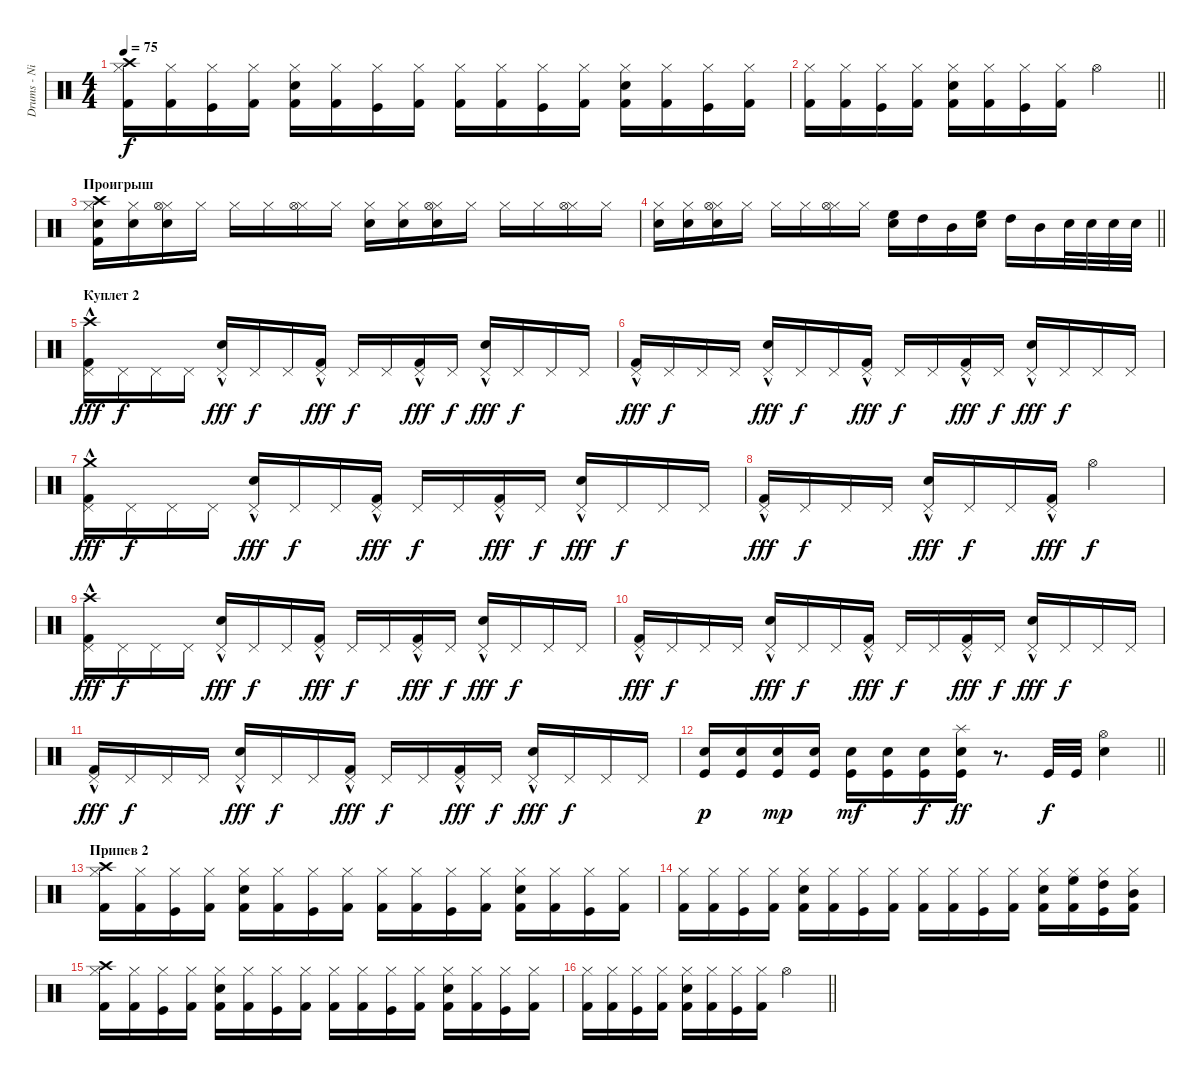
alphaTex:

\track ("Drums - NikiTon" "Drums - Ni") {instrument percussion}
\staff {score}
\articulation defaults
\ts (4 4)
\tempo 75
\clef neutral
\ks c
("Hi-Hat (closed)" "Crash high (hit)" "Kick (hit) 2").16{dy f} ("Hi-Hat (closed)" "Kick (hit) 2").16 ("Hi-Hat (closed)" "Kick (hit)").16 ("Hi-Hat (closed)" "Kick (hit) 2").16 ("Snare (hit) 2" "Hi-Hat (closed)" "Kick (hit) 2").16 ("Hi-Hat (closed)" "Kick (hit) 2").16 ("Hi-Hat (closed)" "Kick (hit)").16 ("Hi-Hat (closed)" "Kick (hit) 2").16 ("Hi-Hat (closed)" "Kick (hit) 2").16 ("Hi-Hat (closed)" "Kick (hit) 2").16 ("Hi-Hat (closed)" "Kick (hit)").16 ("Hi-Hat (closed)" "Kick (hit) 2").16 ("Snare (hit) 2" "Hi-Hat (closed)" "Kick (hit) 2").16 ("Hi-Hat (closed)" "Kick (hit) 2").16 ("Hi-Hat (closed)" "Kick (hit)").16 ("Hi-Hat (closed)" "Kick (hit) 2").16 |
\barLineRight lightlight
("Hi-Hat (closed)" "Kick (hit) 2").16 ("Hi-Hat (closed)" "Kick (hit) 2").16 ("Hi-Hat (closed)" "Kick (hit)").16 ("Hi-Hat (closed)" "Kick (hit) 2").16 ("Snare (hit) 2" "Hi-Hat (closed)" "Kick (hit) 2").16 ("Hi-Hat (closed)" "Kick (hit) 2").16 ("Hi-Hat (closed)" "Kick (hit)").16 ("Hi-Hat (closed)" "Kick (hit) 2").16 "Hi-Hat (open)".2 |
\section ("" "Проигрыш")
("Electric Snare (hit)" "Hi-Hat (closed)" "Crash high (hit)" "Kick (hit) 2").16 ("Electric Snare (hit)" "Hi-Hat (closed)").16 ("Electric Snare (hit)" "Hi-Hat (closed)" "Hi-Hat (open)").16 "Hi-Hat (closed)".16 "Hi-Hat (closed)".16 "Hi-Hat (closed)".16 ("Hi-Hat (closed)" "Hi-Hat (open)").16 "Hi-Hat (closed)".16 ("Hi-Hat (closed)" "Electric Snare (hit)").16 ("Hi-Hat (closed)" "Electric Snare (hit)").16 ("Hi-Hat (closed)" "Electric Snare (hit)" "Hi-Hat (open)").16 "Hi-Hat (closed)".16 "Hi-Hat (closed)".16 "Hi-Hat (closed)".16 ("Hi-Hat (closed)" "Hi-Hat (open)").16 "Hi-Hat (closed)".16 |
\barLineRight lightlight
("Hi-Hat (closed)" "Electric Snare (hit)").16 ("Hi-Hat (closed)" "Electric Snare (hit)").16 ("Hi-Hat (closed)" "Electric Snare (hit)" "Hi-Hat (open)").16 "Hi-Hat (closed)".16 "Hi-Hat (closed)".16 "Hi-Hat (closed)".16 ("Hi-Hat (closed)" "Hi-Hat (open)").16 "Hi-Hat (closed)".16 ("Electric Snare (hit)" "High Floor Tom (hit)").16 "High Tom (hit)".16 "Mid Tom (hit)".16 ("Electric Snare (hit)" "High Floor Tom (hit)").16 "High Tom (hit)".16 "Mid Tom (hit)".16 "Electric Snare (hit)".32 "Electric Snare (hit)".32 "Electric Snare (hit)".32 "Electric Snare (hit)".32 |
\section ("" "Куплет 2")
("Crash high (hit)" "Pedal Hi-Hat (hit)"{hac} "Kick (hit) 2").16{dy fff} "Pedal Hi-Hat (hit)".16{dy f} "Pedal Hi-Hat (hit)".16 "Pedal Hi-Hat (hit)".16 ("Pedal Hi-Hat (hit)"{hac} "Electric Snare (hit)"{hac}).16{dy fff} "Pedal Hi-Hat (hit)".16{dy f} "Pedal Hi-Hat (hit)".16 ("Pedal Hi-Hat (hit)"{hac} "Kick (hit) 2").16{dy fff} "Pedal Hi-Hat (hit)".16{dy f} "Pedal Hi-Hat (hit)".16 ("Pedal Hi-Hat (hit)"{hac} "Kick (hit) 2").16{dy fff} "Pedal Hi-Hat (hit)".16{dy f} ("Pedal Hi-Hat (hit)"{hac} "Electric Snare (hit)"{hac}).16{dy fff} "Pedal Hi-Hat (hit)".16{dy f} "Pedal Hi-Hat (hit)".16 "Pedal Hi-Hat (hit)".16 |
("Pedal Hi-Hat (hit)"{hac} "Kick (hit) 2").16{dy fff} "Pedal Hi-Hat (hit)".16{dy f} "Pedal Hi-Hat (hit)".16 "Pedal Hi-Hat (hit)".16 ("Pedal Hi-Hat (hit)"{hac} "Electric Snare (hit)"{hac}).16{dy fff} "Pedal Hi-Hat (hit)".16{dy f} "Pedal Hi-Hat (hit)".16 ("Pedal Hi-Hat (hit)"{hac} "Kick (hit) 2").16{dy fff} "Pedal Hi-Hat (hit)".16{dy f} "Pedal Hi-Hat (hit)".16 ("Pedal Hi-Hat (hit)"{hac} "Kick (hit) 2").16{dy fff} "Pedal Hi-Hat (hit)".16{dy f} ("Pedal Hi-Hat (hit)"{hac} "Electric Snare (hit)"{hac}).16{dy fff} "Pedal Hi-Hat (hit)".16{dy f} "Pedal Hi-Hat (hit)".16 "Pedal Hi-Hat (hit)".16 |
("Crash medium (hit)" "Pedal Hi-Hat (hit)"{hac} "Kick (hit) 2").16{dy fff} "Pedal Hi-Hat (hit)".16{dy f} "Pedal Hi-Hat (hit)".16 "Pedal Hi-Hat (hit)".16 ("Pedal Hi-Hat (hit)"{hac} "Electric Snare (hit)"{hac}).16{dy fff} "Pedal Hi-Hat (hit)".16{dy f} "Pedal Hi-Hat (hit)".16 ("Pedal Hi-Hat (hit)"{hac} "Kick (hit) 2").16{dy fff} "Pedal Hi-Hat (hit)".16{dy f} "Pedal Hi-Hat (hit)".16 ("Pedal Hi-Hat (hit)"{hac} "Kick (hit) 2").16{dy fff} "Pedal Hi-Hat (hit)".16{dy f} ("Pedal Hi-Hat (hit)"{hac} "Electric Snare (hit)"{hac}).16{dy fff} "Pedal Hi-Hat (hit)".16{dy f} "Pedal Hi-Hat (hit)".16 "Pedal Hi-Hat (hit)".16 |
("Pedal Hi-Hat (hit)"{hac} "Kick (hit) 2").16{dy fff} "Pedal Hi-Hat (hit)".16{dy f} "Pedal Hi-Hat (hit)".16 "Pedal Hi-Hat (hit)".16 ("Pedal Hi-Hat (hit)"{hac} "Electric Snare (hit)"{hac}).16{dy fff} "Pedal Hi-Hat (hit)".16{dy f} "Pedal Hi-Hat (hit)".16 ("Pedal Hi-Hat (hit)"{hac} "Kick (hit) 2").16{dy fff} "Hi-Hat (open)".2{dy f} |
("Crash high (hit)" "Pedal Hi-Hat (hit)"{hac} "Kick (hit) 2").16{dy fff} "Pedal Hi-Hat (hit)".16{dy f} "Pedal Hi-Hat (hit)".16 "Pedal Hi-Hat (hit)".16 ("Pedal Hi-Hat (hit)"{hac} "Electric Snare (hit)"{hac}).16{dy fff} "Pedal Hi-Hat (hit)".16{dy f} "Pedal Hi-Hat (hit)".16 ("Pedal Hi-Hat (hit)"{hac} "Kick (hit) 2").16{dy fff} "Pedal Hi-Hat (hit)".16{dy f} "Pedal Hi-Hat (hit)".16 ("Pedal Hi-Hat (hit)"{hac} "Kick (hit) 2").16{dy fff} "Pedal Hi-Hat (hit)".16{dy f} ("Pedal Hi-Hat (hit)"{hac} "Electric Snare (hit)"{hac}).16{dy fff} "Pedal Hi-Hat (hit)".16{dy f} "Pedal Hi-Hat (hit)".16 "Pedal Hi-Hat (hit)".16 |
("Pedal Hi-Hat (hit)"{hac} "Kick (hit) 2").16{dy fff} "Pedal Hi-Hat (hit)".16{dy f} "Pedal Hi-Hat (hit)".16 "Pedal Hi-Hat (hit)".16 ("Pedal Hi-Hat (hit)"{hac} "Electric Snare (hit)"{hac}).16{dy fff} "Pedal Hi-Hat (hit)".16{dy f} "Pedal Hi-Hat (hit)".16 ("Pedal Hi-Hat (hit)"{hac} "Kick (hit) 2").16{dy fff} "Pedal Hi-Hat (hit)".16{dy f} "Pedal Hi-Hat (hit)".16 ("Pedal Hi-Hat (hit)"{hac} "Kick (hit) 2").16{dy fff} "Pedal Hi-Hat (hit)".16{dy f} ("Pedal Hi-Hat (hit)"{hac} "Electric Snare (hit)"{hac}).16{dy fff} "Pedal Hi-Hat (hit)".16{dy f} "Pedal Hi-Hat (hit)".16 "Pedal Hi-Hat (hit)".16 |
("Pedal Hi-Hat (hit)"{hac} "Kick (hit) 2").16{dy fff} "Pedal Hi-Hat (hit)".16{dy f} "Pedal Hi-Hat (hit)".16 "Pedal Hi-Hat (hit)".16 ("Pedal Hi-Hat (hit)"{hac} "Electric Snare (hit)"{hac}).16{dy fff} "Pedal Hi-Hat (hit)".16{dy f} "Pedal Hi-Hat (hit)".16 ("Pedal Hi-Hat (hit)"{hac} "Kick (hit) 2").16{dy fff} "Pedal Hi-Hat (hit)".16{dy f} "Pedal Hi-Hat (hit)".16 ("Pedal Hi-Hat (hit)"{hac} "Kick (hit) 2").16{dy fff} "Pedal Hi-Hat (hit)".16{dy f} ("Pedal Hi-Hat (hit)"{hac} "Electric Snare (hit)"{hac}).16{dy fff} "Pedal Hi-Hat (hit)".16{dy f} "Pedal Hi-Hat (hit)".16 "Pedal Hi-Hat (hit)".16 |
\barLineRight lightlight
("Electric Snare (hit)" "Kick (hit)").16{dy p} ("Electric Snare (hit)" "Kick (hit)").16 ("Electric Snare (hit)" "Kick (hit)").16{dy mp} ("Electric Snare (hit)" "Kick (hit)").16 ("Electric Snare (hit)" "Kick (hit)").16{dy mf} ("Electric Snare (hit)" "Kick (hit)").16 ("Electric Snare (hit)" "Kick (hit)").16{dy f} ("Splash (hit)" "Electric Snare (hit)" "Kick (hit)").16{dy ff} r.8{d} "Kick (hit)".32{dy f} "Kick (hit)".32 ("Electric Snare (hit)" "Hi-Hat (open)").4 |
\section ("" "Припев 2")
("Hi-Hat (closed)" "Crash high (hit)" "Kick (hit) 2").16 ("Hi-Hat (closed)" "Kick (hit) 2").16 ("Hi-Hat (closed)" "Kick (hit)").16 ("Hi-Hat (closed)" "Kick (hit) 2").16 ("Snare (hit) 2" "Hi-Hat (closed)" "Kick (hit) 2").16 ("Hi-Hat (closed)" "Kick (hit) 2").16 ("Hi-Hat (closed)" "Kick (hit)").16 ("Hi-Hat (closed)" "Kick (hit) 2").16 ("Hi-Hat (closed)" "Kick (hit) 2").16 ("Hi-Hat (closed)" "Kick (hit) 2").16 ("Hi-Hat (closed)" "Kick (hit)").16 ("Hi-Hat (closed)" "Kick (hit) 2").16 ("Snare (hit) 2" "Hi-Hat (closed)" "Kick (hit) 2").16 ("Hi-Hat (closed)" "Kick (hit) 2").16 ("Hi-Hat (closed)" "Kick (hit)").16 ("Hi-Hat (closed)" "Kick (hit) 2").16 |
("Hi-Hat (closed)" "Kick (hit) 2").16 ("Hi-Hat (closed)" "Kick (hit) 2").16 ("Hi-Hat (closed)" "Kick (hit)").16 ("Hi-Hat (closed)" "Kick (hit) 2").16 ("Snare (hit) 2" "Hi-Hat (closed)" "Kick (hit) 2").16 ("Hi-Hat (closed)" "Kick (hit) 2").16 ("Hi-Hat (closed)" "Kick (hit)").16 ("Hi-Hat (closed)" "Kick (hit) 2").16 ("Hi-Hat (closed)" "Kick (hit) 2").16 ("Hi-Hat (closed)" "Kick (hit) 2").16 ("Hi-Hat (closed)" "Kick (hit)").16 ("Hi-Hat (closed)" "Kick (hit) 2").16 ("Snare (hit) 2" "Hi-Hat (closed)" "Kick (hit) 2").16 ("High Floor Tom (hit)" "Hi-Hat (closed)" "Kick (hit) 2").16 ("High Tom (hit)" "Hi-Hat (closed)" "Kick (hit)").16 ("Mid Tom (hit)" "Hi-Hat (closed)" "Kick (hit) 2").16 |
("Hi-Hat (closed)" "Crash high (hit)" "Kick (hit) 2").16 ("Hi-Hat (closed)" "Kick (hit) 2").16 ("Hi-Hat (closed)" "Kick (hit)").16 ("Hi-Hat (closed)" "Kick (hit) 2").16 ("Snare (hit) 2" "Hi-Hat (closed)" "Kick (hit) 2").16 ("Hi-Hat (closed)" "Kick (hit) 2").16 ("Hi-Hat (closed)" "Kick (hit)").16 ("Hi-Hat (closed)" "Kick (hit) 2").16 ("Hi-Hat (closed)" "Kick (hit) 2").16 ("Hi-Hat (closed)" "Kick (hit) 2").16 ("Hi-Hat (closed)" "Kick (hit)").16 ("Hi-Hat (closed)" "Kick (hit) 2").16 ("Snare (hit) 2" "Hi-Hat (closed)" "Kick (hit) 2").16 ("Hi-Hat (closed)" "Kick (hit) 2").16 ("Hi-Hat (closed)" "Kick (hit)").16 ("Hi-Hat (closed)" "Kick (hit) 2").16 |
\barLineRight lightlight
("Hi-Hat (closed)" "Kick (hit) 2").16 ("Hi-Hat (closed)" "Kick (hit) 2").16 ("Hi-Hat (closed)" "Kick (hit)").16 ("Hi-Hat (closed)" "Kick (hit) 2").16 ("Snare (hit) 2" "Hi-Hat (closed)" "Kick (hit) 2").16 ("Hi-Hat (closed)" "Kick (hit) 2").16 ("Hi-Hat (closed)" "Kick (hit)").16 ("Hi-Hat (closed)" "Kick (hit) 2").16 "Hi-Hat (open)".2
